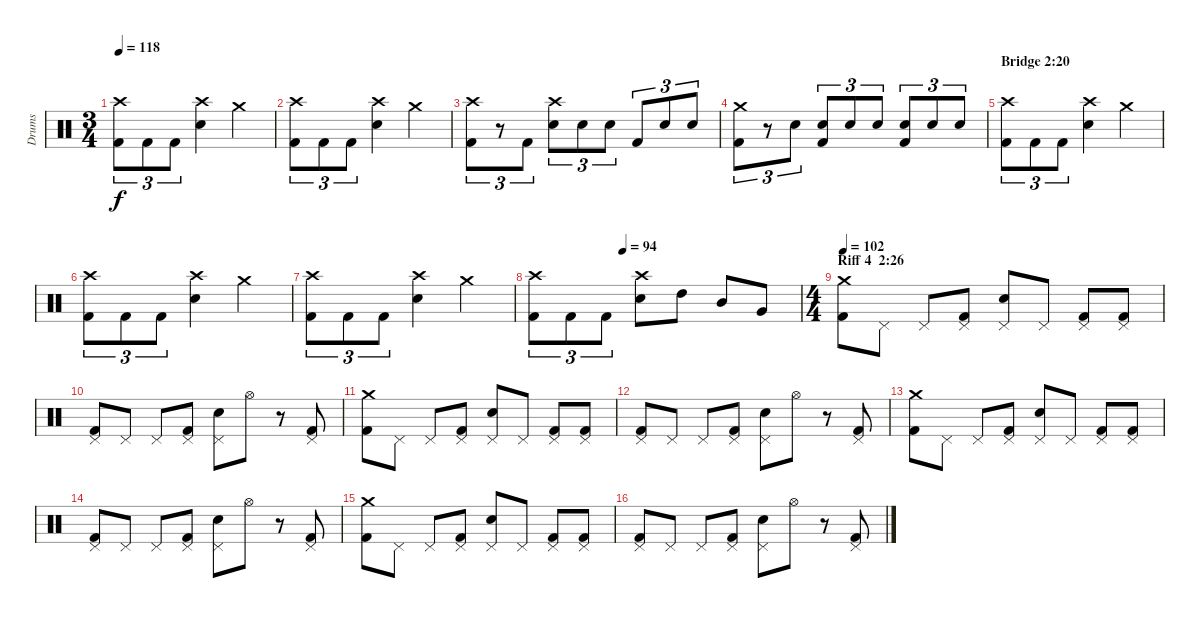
\track ("Drums" "Drums") {instrument percussion}
\staff {score}
\articulation defaults
\ts (3 4)
\tempo 118
\clef neutral
\ks c
("Crash high (hit)" "Kick (hit) 2").8{tu (3 2) dy f} "Kick (hit) 2".8{tu (3 2)} "Kick (hit) 2".8{tu (3 2)} ("Crash high (hit)" "Snare (hit) 2").4 "Crash medium (hit)".4 |
("Crash high (hit)" "Kick (hit) 2").8{tu (3 2)} "Kick (hit) 2".8{tu (3 2)} "Kick (hit) 2".8{tu (3 2)} ("Crash high (hit)" "Snare (hit) 2").4 "Crash medium (hit)".4 |
("Crash high (hit)" "Kick (hit) 2").8{tu (3 2)} r.8{tu (3 2)} "Kick (hit) 2".8{tu (3 2)} ("Crash high (hit)" "Snare (hit) 2").8{tu (3 2)} "Snare (hit) 2".8{tu (3 2)} "Snare (hit) 2".8{tu (3 2)} "Kick (hit) 2".8{tu (3 2)} "Snare (hit) 2".8{tu (3 2)} "Snare (hit) 2".8{tu (3 2)} |
("Crash medium (hit)" "Kick (hit) 2").8{tu (3 2)} r.8{tu (3 2)} "Snare (hit) 2".8{tu (3 2)} ("Snare (hit) 2" "Kick (hit) 2").8{tu (3 2)} "Snare (hit) 2".8{tu (3 2)} "Snare (hit) 2".8{tu (3 2)} ("Snare (hit) 2" "Kick (hit) 2").8{tu (3 2)} "Snare (hit) 2".8{tu (3 2)} "Snare (hit) 2".8{tu (3 2)} |
\section ("" "Bridge 2:20")
("Crash high (hit)" "Kick (hit) 2").8{tu (3 2)} "Kick (hit) 2".8{tu (3 2)} "Kick (hit) 2".8{tu (3 2)} ("Crash high (hit)" "Snare (hit) 2").4 "Crash medium (hit)".4 |
("Crash high (hit)" "Kick (hit) 2").8{tu (3 2)} "Kick (hit) 2".8{tu (3 2)} "Kick (hit) 2".8{tu (3 2)} ("Crash high (hit)" "Snare (hit) 2").4 "Crash medium (hit)".4 |
("Crash high (hit)" "Kick (hit) 2").8{tu (3 2)} "Kick (hit) 2".8{tu (3 2)} "Kick (hit) 2".8{tu (3 2)} ("Crash high (hit)" "Snare (hit) 2").4 "Crash medium (hit)".4 |
\tempo (94 0.3333333333333333)
("Crash high (hit)" "Kick (hit) 2").8{tu (3 2)} "Kick (hit) 2".8{tu (3 2)} "Kick (hit) 2".8{tu (3 2)} ("Crash high (hit)" "Snare (hit) 2").8 "High Tom (hit)".8 "Mid Tom (hit)".8 "Very Low Tom (hit)".8 |
\ts (4 4)
\section ("" "Riff 4  2:26")
\tempo 102
("Crash medium (hit)" "Kick (hit) 2").8 "Pedal Hi-Hat (hit)".8 "Pedal Hi-Hat (hit)".8 ("Pedal Hi-Hat (hit)" "Kick (hit) 2").8 ("Pedal Hi-Hat (hit)" "Snare (hit) 2").8 "Pedal Hi-Hat (hit)".8 ("Pedal Hi-Hat (hit)" "Kick (hit) 2").8 ("Pedal Hi-Hat (hit)" "Kick (hit) 2").8 |
("Pedal Hi-Hat (hit)" "Kick (hit) 2").8 "Pedal Hi-Hat (hit)".8 "Pedal Hi-Hat (hit)".8 ("Pedal Hi-Hat (hit)" "Kick (hit) 2").8 ("Pedal Hi-Hat (hit)" "Snare (hit) 2").8 "Hi-Hat (open)".8 r.8 ("Pedal Hi-Hat (hit)" "Kick (hit) 2").8 |
("Crash medium (hit)" "Kick (hit) 2").8 "Pedal Hi-Hat (hit)".8 "Pedal Hi-Hat (hit)".8 ("Pedal Hi-Hat (hit)" "Kick (hit) 2").8 ("Pedal Hi-Hat (hit)" "Snare (hit) 2").8 "Pedal Hi-Hat (hit)".8 ("Pedal Hi-Hat (hit)" "Kick (hit) 2").8 ("Pedal Hi-Hat (hit)" "Kick (hit) 2").8 |
("Pedal Hi-Hat (hit)" "Kick (hit) 2").8 "Pedal Hi-Hat (hit)".8 "Pedal Hi-Hat (hit)".8 ("Pedal Hi-Hat (hit)" "Kick (hit) 2").8 ("Pedal Hi-Hat (hit)" "Snare (hit) 2").8 "Hi-Hat (open)".8 r.8 ("Pedal Hi-Hat (hit)" "Kick (hit) 2").8 |
("Crash medium (hit)" "Kick (hit) 2").8 "Pedal Hi-Hat (hit)".8 "Pedal Hi-Hat (hit)".8 ("Pedal Hi-Hat (hit)" "Kick (hit) 2").8 ("Pedal Hi-Hat (hit)" "Snare (hit) 2").8 "Pedal Hi-Hat (hit)".8 ("Pedal Hi-Hat (hit)" "Kick (hit) 2").8 ("Pedal Hi-Hat (hit)" "Kick (hit) 2").8 |
("Pedal Hi-Hat (hit)" "Kick (hit) 2").8 "Pedal Hi-Hat (hit)".8 "Pedal Hi-Hat (hit)".8 ("Pedal Hi-Hat (hit)" "Kick (hit) 2").8 ("Pedal Hi-Hat (hit)" "Snare (hit) 2").8 "Hi-Hat (open)".8 r.8 ("Pedal Hi-Hat (hit)" "Kick (hit) 2").8 |
("Crash medium (hit)" "Kick (hit) 2").8 "Pedal Hi-Hat (hit)".8 "Pedal Hi-Hat (hit)".8 ("Pedal Hi-Hat (hit)" "Kick (hit) 2").8 ("Pedal Hi-Hat (hit)" "Snare (hit) 2").8 "Pedal Hi-Hat (hit)".8 ("Pedal Hi-Hat (hit)" "Kick (hit) 2").8 ("Pedal Hi-Hat (hit)" "Kick (hit) 2").8 |
("Pedal Hi-Hat (hit)" "Kick (hit) 2").8 "Pedal Hi-Hat (hit)".8 "Pedal Hi-Hat (hit)".8 ("Pedal Hi-Hat (hit)" "Kick (hit) 2").8 ("Pedal Hi-Hat (hit)" "Snare (hit) 2").8 "Hi-Hat (open)".8 r.8 ("Pedal Hi-Hat (hit)" "Kick (hit) 2").8
